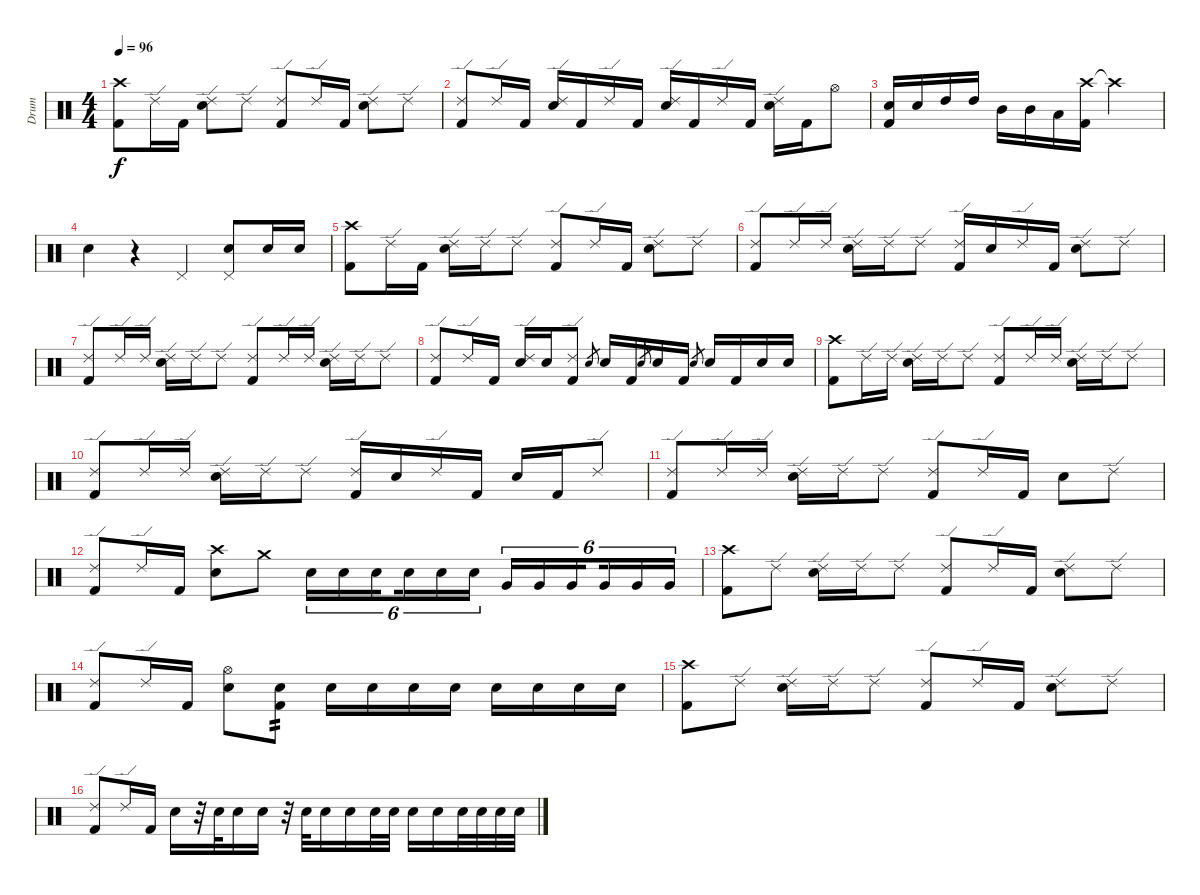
\track ("Drum" "Drum") {instrument percussion}
\staff {score}
\articulation defaults
\ts (4 4)
\tempo 96
\clef neutral
\ks c
("Crash high (hit)" "Kick (hit) 2").8{dy f} "Ride (edge) 2".16 "Kick (hit) 2".16 ("Ride (edge) 2" "Electric Snare (hit)").8 "Ride (edge) 2".8 ("Ride (edge) 2" "Kick (hit) 2").8 "Ride (edge) 2".16 "Kick (hit) 2".16 ("Ride (edge) 2" "Electric Snare (hit)").8 "Ride (edge) 2".8 |
("Ride (edge) 2" "Kick (hit) 2").8 "Ride (edge) 2".16 "Kick (hit) 2".16 ("Ride (edge) 2" "Electric Snare (hit)").16 "Kick (hit) 2".16 "Ride (edge) 2".16 "Kick (hit) 2".16 ("Ride (edge) 2" "Electric Snare (hit)").16 "Kick (hit) 2".16 "Ride (edge) 2".16 "Kick (hit) 2".16 ("Ride (edge) 2" "Electric Snare (hit)").16 "Kick (hit) 2".16 "Hi-Hat (open)".8 |
("Electric Snare (hit)" "Kick (hit) 2").16 "Electric Snare (hit)".16 "High Tom (hit)".16 "High Tom (hit)".16 "Mid Tom (hit)".16 "Mid Tom (hit)".16 "Low Floor Tom (hit)".16 ("Crash high (hit)" "Kick (hit) 2").16 "Crash high (hit)"{t}.2 |
"Electric Snare (hit)".4 r.4 "Pedal Hi-Hat (hit)".4 ("Electric Snare (hit)" "Pedal Hi-Hat (hit)").8 "Electric Snare (hit)".16 "Electric Snare (hit)".16 |
("Crash high (hit)" "Kick (hit) 2").8 "Ride (edge) 2".16 "Kick (hit) 2".16 ("Ride (edge) 2" "Electric Snare (hit)").16 "Ride (edge) 2".16 "Ride (edge) 2".8 ("Ride (edge) 2" "Kick (hit) 2").8 "Ride (edge) 2".16 "Kick (hit) 2".16 ("Ride (edge) 2" "Electric Snare (hit)").8 "Ride (edge) 2".8 |
("Ride (edge) 2" "Kick (hit) 2").8 "Ride (edge) 2".16 "Ride (edge) 2".16 ("Ride (edge) 2" "Electric Snare (hit)").16 "Ride (edge) 2".16 "Ride (edge) 2".8 ("Ride (edge) 2" "Kick (hit) 2").16 "Electric Snare (hit)".16 "Ride (edge) 2".16 "Kick (hit) 2".16 ("Ride (edge) 2" "Electric Snare (hit)").8 "Ride (edge) 2".8 |
("Ride (edge) 2" "Kick (hit) 2").8 "Ride (edge) 2".16 "Ride (edge) 2".16 ("Ride (edge) 2" "Electric Snare (hit)").16 "Ride (edge) 2".16 "Ride (edge) 2".8 ("Ride (edge) 2" "Kick (hit) 2").8 "Ride (edge) 2".16 "Ride (edge) 2".16 ("Ride (edge) 2" "Electric Snare (hit)").16 "Ride (edge) 2".16 "Ride (edge) 2".8 |
("Ride (edge) 2" "Kick (hit) 2").8 "Ride (edge) 2".16 "Kick (hit) 2".16 ("Ride (edge) 2" "Electric Snare (hit)").16 "Electric Snare (hit)".16 ("Ride (edge) 2" "Kick (hit) 2").8 "Electric Snare (hit)".8{gr} "Electric Snare (hit)".16 "Kick (hit) 2".16 "Electric Snare (hit)".8{gr} "Electric Snare (hit)".16 "Kick (hit) 2".16 "Electric Snare (hit)".8{gr} "Electric Snare (hit)".16 "Kick (hit) 2".16 "Electric Snare (hit)".16 "Electric Snare (hit)".16 |
("Crash high (hit)" "Kick (hit) 2").8 "Ride (edge) 2".16 "Ride (edge) 2".16 ("Ride (edge) 2" "Electric Snare (hit)").16 "Ride (edge) 2".16 "Ride (edge) 2".8 ("Ride (edge) 2" "Kick (hit) 2").8 "Ride (edge) 2".16 "Ride (edge) 2".16 ("Ride (edge) 2" "Electric Snare (hit)").16 "Ride (edge) 2".16 "Ride (edge) 2".8 |
("Ride (edge) 2" "Kick (hit) 2").8 "Ride (edge) 2".16 "Ride (edge) 2".16 ("Ride (edge) 2" "Electric Snare (hit)").16 "Ride (edge) 2".16 "Ride (edge) 2".8 ("Ride (edge) 2" "Kick (hit) 2").16 "Electric Snare (hit)".16 "Ride (edge) 2".16 "Kick (hit) 2".16 "Electric Snare (hit)".16 "Kick (hit) 2".16 "Ride (edge) 2".8 |
("Ride (edge) 2" "Kick (hit) 2").8 "Ride (edge) 2".16 "Ride (edge) 2".16 ("Ride (edge) 2" "Electric Snare (hit)").16 "Ride (edge) 2".16 "Ride (edge) 2".8 ("Ride (edge) 2" "Kick (hit) 2").8 "Ride (edge) 2".16 "Kick (hit) 2".16 "Electric Snare (hit)".8 "Ride (edge) 2".8 |
("Ride (edge) 2" "Kick (hit) 2").8 "Ride (edge) 2".16 "Kick (hit) 2".16 ("Crash high (hit)" "Electric Snare (hit)").8 "Crash medium (hit)".8 "Electric Snare (hit)".16{tu (6 4)} "Electric Snare (hit)".16{tu (6 4)} "Electric Snare (hit)".16{tu (6 4) beam splitsecondary} "Electric Snare (hit)".16{tu (6 4)} "Electric Snare (hit)".16{tu (6 4)} "Electric Snare (hit)".16{tu (6 4)} "Very Low Tom (hit)".16{tu (6 4)} "Very Low Tom (hit)".16{tu (6 4)} "Very Low Tom (hit)".16{tu (6 4) beam splitsecondary} "Very Low Tom (hit)".16{tu (6 4)} "Very Low Tom (hit)".16{tu (6 4)} "Very Low Tom (hit)".16{tu (6 4)} |
("Crash high (hit)" "Kick (hit) 2").8 "Ride (edge) 2".8 ("Ride (edge) 2" "Electric Snare (hit)").16 "Ride (edge) 2".16 "Ride (edge) 2".8 ("Ride (edge) 2" "Kick (hit) 2").8 "Ride (edge) 2".16 "Kick (hit) 2".16 ("Ride (edge) 2" "Electric Snare (hit)").8 "Ride (edge) 2".8 |
("Ride (edge) 2" "Kick (hit) 2").8 "Ride (edge) 2".16 "Kick (hit) 2".16 ("Hi-Hat (open)" "Electric Snare (hit)").8 ("Electric Snare (hit)" "Kick (hit) 2").8{tp 2} "Electric Snare (hit)".16 "Electric Snare (hit)".16 "Electric Snare (hit)".16 "Electric Snare (hit)".16 "Electric Snare (hit)".16 "Electric Snare (hit)".16 "Electric Snare (hit)".16 "Electric Snare (hit)".16 |
("Crash high (hit)" "Kick (hit) 2").8 "Ride (edge) 2".8 ("Ride (edge) 2" "Electric Snare (hit)").16 "Ride (edge) 2".16 "Ride (edge) 2".8 ("Ride (edge) 2" "Kick (hit) 2").8 "Ride (edge) 2".16 "Kick (hit) 2".16 ("Ride (edge) 2" "Electric Snare (hit)").8 "Ride (edge) 2".8 |
("Ride (edge) 2" "Kick (hit) 2").8 "Ride (edge) 2".16 "Kick (hit) 2".16 "Electric Snare (hit)".16 r.32 "Electric Snare (hit)".32 "Electric Snare (hit)".16 "Electric Snare (hit)".16 r.32 "Electric Snare (hit)".32 "Electric Snare (hit)".16 "Electric Snare (hit)".16 "Electric Snare (hit)".32 "Electric Snare (hit)".32 "Electric Snare (hit)".16 "Electric Snare (hit)".16 "Electric Snare (hit)".32 "Electric Snare (hit)".32 "Electric Snare (hit)".32 "Electric Snare (hit)".32
